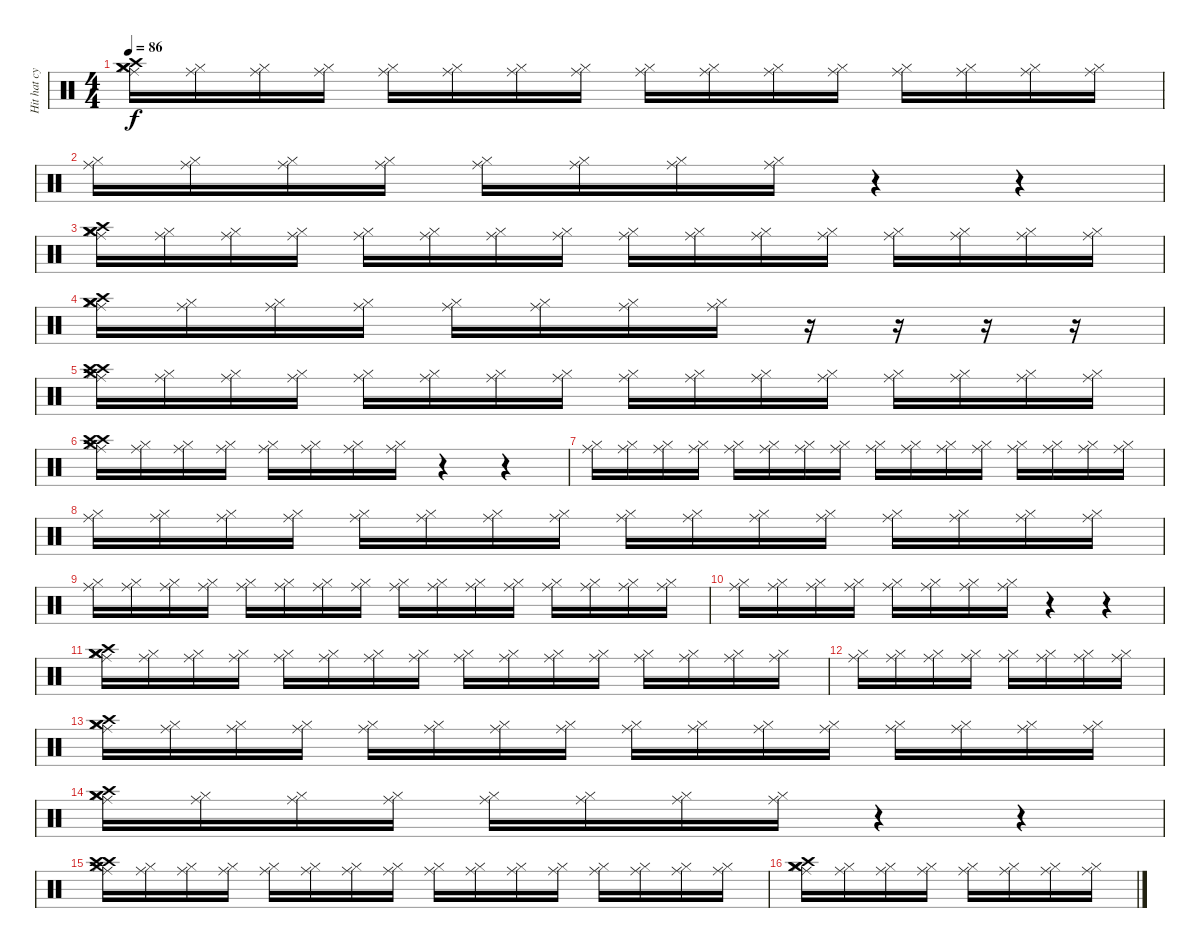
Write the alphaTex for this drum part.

\track ("Hit hat cymbal" "Hit hat cy") {instrument percussion}
\staff {score}
\articulation defaults
\ts (4 4)
\tempo 86
\clef neutral
\ks c
("Ride (middle)" "Hi-Hat (closed)" "Crash medium (hit)" "Crash medium (hit)" "Crash high (hit)").16{dy f} ("Ride (middle)" "Hi-Hat (closed)").16 ("Ride (middle)" "Hi-Hat (closed)").16 ("Ride (middle)" "Hi-Hat (closed)").16 ("Ride (middle)" "Hi-Hat (closed)").16 ("Ride (middle)" "Hi-Hat (closed)").16 ("Ride (middle)" "Hi-Hat (closed)").16 ("Ride (middle)" "Hi-Hat (closed)").16 ("Ride (middle)" "Hi-Hat (closed)").16 ("Ride (middle)" "Hi-Hat (closed)").16 ("Ride (middle)" "Hi-Hat (closed)").16 ("Ride (middle)" "Hi-Hat (closed)").16 ("Ride (middle)" "Hi-Hat (closed)").16 ("Ride (middle)" "Hi-Hat (closed)").16 ("Ride (middle)" "Hi-Hat (closed)").16 ("Ride (middle)" "Hi-Hat (closed)").16 |
("Ride (middle)" "Hi-Hat (closed)").16 ("Ride (middle)" "Hi-Hat (closed)").16 ("Ride (middle)" "Hi-Hat (closed)").16 ("Ride (middle)" "Hi-Hat (closed)").16 ("Ride (middle)" "Hi-Hat (closed)").16 ("Ride (middle)" "Hi-Hat (closed)").16 ("Ride (middle)" "Hi-Hat (closed)").16 ("Ride (middle)" "Hi-Hat (closed)").16 r.4 r.4 |
("Ride (middle)" "Hi-Hat (closed)" "Crash medium (hit)" "Crash medium (hit)" "Crash high (hit)").16 ("Ride (middle)" "Hi-Hat (closed)").16 ("Ride (middle)" "Hi-Hat (closed)").16 ("Ride (middle)" "Hi-Hat (closed)").16 ("Ride (middle)" "Hi-Hat (closed)").16 ("Ride (middle)" "Hi-Hat (closed)").16 ("Ride (middle)" "Hi-Hat (closed)").16 ("Ride (middle)" "Hi-Hat (closed)").16 ("Ride (middle)" "Hi-Hat (closed)").16 ("Ride (middle)" "Hi-Hat (closed)").16 ("Ride (middle)" "Hi-Hat (closed)").16 ("Ride (middle)" "Hi-Hat (closed)").16 ("Ride (middle)" "Hi-Hat (closed)").16 ("Ride (middle)" "Hi-Hat (closed)").16 ("Ride (middle)" "Hi-Hat (closed)").16 ("Ride (middle)" "Hi-Hat (closed)").16 |
("Ride (middle)" "Hi-Hat (closed)" "Crash medium (hit)" "Crash medium (hit)" "Crash high (hit)").16 ("Ride (middle)" "Hi-Hat (closed)").16 ("Ride (middle)" "Hi-Hat (closed)").16 ("Ride (middle)" "Hi-Hat (closed)").16 ("Ride (middle)" "Hi-Hat (closed)").16 ("Ride (middle)" "Hi-Hat (closed)").16 ("Ride (middle)" "Hi-Hat (closed)").16 ("Ride (middle)" "Hi-Hat (closed)").16 r.16 r.16 r.16 r.16 |
("Ride (middle)" "Hi-Hat (closed)" "Crash medium (hit)" "Crash high (hit)" "Crash high (hit)").16 ("Ride (middle)" "Hi-Hat (closed)").16 ("Ride (middle)" "Hi-Hat (closed)").16 ("Ride (middle)" "Hi-Hat (closed)").16 ("Ride (middle)" "Hi-Hat (closed)").16 ("Ride (middle)" "Hi-Hat (closed)").16 ("Ride (middle)" "Hi-Hat (closed)").16 ("Ride (middle)" "Hi-Hat (closed)").16 ("Ride (middle)" "Hi-Hat (closed)").16 ("Ride (middle)" "Hi-Hat (closed)").16 ("Ride (middle)" "Hi-Hat (closed)").16 ("Ride (middle)" "Hi-Hat (closed)").16 ("Ride (middle)" "Hi-Hat (closed)").16 ("Ride (middle)" "Hi-Hat (closed)").16 ("Ride (middle)" "Hi-Hat (closed)").16 ("Ride (middle)" "Hi-Hat (closed)").16 |
("Ride (middle)" "Hi-Hat (closed)" "Crash medium (hit)" "Crash high (hit)" "Crash high (hit)").16 ("Ride (middle)" "Hi-Hat (closed)").16 ("Ride (middle)" "Hi-Hat (closed)").16 ("Ride (middle)" "Hi-Hat (closed)").16 ("Ride (middle)" "Hi-Hat (closed)").16 ("Ride (middle)" "Hi-Hat (closed)").16 ("Ride (middle)" "Hi-Hat (closed)").16 ("Ride (middle)" "Hi-Hat (closed)").16 r.4 r.4 |
("Ride (middle)" "Hi-Hat (closed)").16 ("Ride (middle)" "Hi-Hat (closed)").16 ("Ride (middle)" "Hi-Hat (closed)").16 ("Ride (middle)" "Hi-Hat (closed)").16 ("Ride (middle)" "Hi-Hat (closed)").16 ("Ride (middle)" "Hi-Hat (closed)").16 ("Ride (middle)" "Hi-Hat (closed)").16 ("Ride (middle)" "Hi-Hat (closed)").16 ("Ride (middle)" "Hi-Hat (closed)").16 ("Ride (middle)" "Hi-Hat (closed)").16 ("Ride (middle)" "Hi-Hat (closed)").16 ("Ride (middle)" "Hi-Hat (closed)").16 ("Ride (middle)" "Hi-Hat (closed)").16 ("Ride (middle)" "Hi-Hat (closed)").16 ("Ride (middle)" "Hi-Hat (closed)").16 ("Ride (middle)" "Hi-Hat (closed)").16 |
("Ride (middle)" "Hi-Hat (closed)").16 ("Ride (middle)" "Hi-Hat (closed)").16 ("Ride (middle)" "Hi-Hat (closed)").16 ("Ride (middle)" "Hi-Hat (closed)").16 ("Ride (middle)" "Hi-Hat (closed)").16 ("Ride (middle)" "Hi-Hat (closed)").16 ("Ride (middle)" "Hi-Hat (closed)").16 ("Ride (middle)" "Hi-Hat (closed)").16 ("Ride (middle)" "Hi-Hat (closed)").16 ("Ride (middle)" "Hi-Hat (closed)").16 ("Ride (middle)" "Hi-Hat (closed)").16 ("Ride (middle)" "Hi-Hat (closed)").16 ("Ride (middle)" "Hi-Hat (closed)").16 ("Ride (middle)" "Hi-Hat (closed)").16 ("Ride (middle)" "Hi-Hat (closed)").16 ("Ride (middle)" "Hi-Hat (closed)").16 |
("Ride (middle)" "Hi-Hat (closed)").16 ("Ride (middle)" "Hi-Hat (closed)").16 ("Ride (middle)" "Hi-Hat (closed)").16 ("Ride (middle)" "Hi-Hat (closed)").16 ("Ride (middle)" "Hi-Hat (closed)").16 ("Ride (middle)" "Hi-Hat (closed)").16 ("Ride (middle)" "Hi-Hat (closed)").16 ("Ride (middle)" "Hi-Hat (closed)").16 ("Ride (middle)" "Hi-Hat (closed)").16 ("Ride (middle)" "Hi-Hat (closed)").16 ("Ride (middle)" "Hi-Hat (closed)").16 ("Ride (middle)" "Hi-Hat (closed)").16 ("Ride (middle)" "Hi-Hat (closed)").16 ("Ride (middle)" "Hi-Hat (closed)").16 ("Ride (middle)" "Hi-Hat (closed)").16 ("Ride (middle)" "Hi-Hat (closed)").16 |
("Ride (middle)" "Hi-Hat (closed)").16 ("Ride (middle)" "Hi-Hat (closed)").16 ("Ride (middle)" "Hi-Hat (closed)").16 ("Ride (middle)" "Hi-Hat (closed)").16 ("Ride (middle)" "Hi-Hat (closed)").16 ("Ride (middle)" "Hi-Hat (closed)").16 ("Ride (middle)" "Hi-Hat (closed)").16 ("Ride (middle)" "Hi-Hat (closed)").16 r.4 r.4 |
("Ride (middle)" "Hi-Hat (closed)" "Crash medium (hit)" "Crash medium (hit)" "Crash high (hit)").16 ("Ride (middle)" "Hi-Hat (closed)").16 ("Ride (middle)" "Hi-Hat (closed)").16 ("Ride (middle)" "Hi-Hat (closed)").16 ("Ride (middle)" "Hi-Hat (closed)").16 ("Ride (middle)" "Hi-Hat (closed)").16 ("Ride (middle)" "Hi-Hat (closed)").16 ("Ride (middle)" "Hi-Hat (closed)").16 ("Ride (middle)" "Hi-Hat (closed)").16 ("Ride (middle)" "Hi-Hat (closed)").16 ("Ride (middle)" "Hi-Hat (closed)").16 ("Ride (middle)" "Hi-Hat (closed)").16 ("Ride (middle)" "Hi-Hat (closed)").16 ("Ride (middle)" "Hi-Hat (closed)").16 ("Ride (middle)" "Hi-Hat (closed)").16 ("Ride (middle)" "Hi-Hat (closed)").16 |
("Ride (middle)" "Hi-Hat (closed)").16 ("Ride (middle)" "Hi-Hat (closed)").16 ("Ride (middle)" "Hi-Hat (closed)").16 ("Ride (middle)" "Hi-Hat (closed)").16 ("Ride (middle)" "Hi-Hat (closed)").16 ("Ride (middle)" "Hi-Hat (closed)").16 ("Ride (middle)" "Hi-Hat (closed)").16 ("Ride (middle)" "Hi-Hat (closed)").16 |
("Ride (middle)" "Hi-Hat (closed)" "Crash medium (hit)" "Crash medium (hit)" "Crash high (hit)").16 ("Ride (middle)" "Hi-Hat (closed)").16 ("Ride (middle)" "Hi-Hat (closed)").16 ("Ride (middle)" "Hi-Hat (closed)").16 ("Ride (middle)" "Hi-Hat (closed)").16 ("Ride (middle)" "Hi-Hat (closed)").16 ("Ride (middle)" "Hi-Hat (closed)").16 ("Ride (middle)" "Hi-Hat (closed)").16 ("Ride (middle)" "Hi-Hat (closed)").16 ("Ride (middle)" "Hi-Hat (closed)").16 ("Ride (middle)" "Hi-Hat (closed)").16 ("Ride (middle)" "Hi-Hat (closed)").16 ("Ride (middle)" "Hi-Hat (closed)").16 ("Ride (middle)" "Hi-Hat (closed)").16 ("Ride (middle)" "Hi-Hat (closed)").16 ("Ride (middle)" "Hi-Hat (closed)").16 |
("Ride (middle)" "Hi-Hat (closed)" "Crash medium (hit)" "Crash medium (hit)" "Crash high (hit)").16 ("Ride (middle)" "Hi-Hat (closed)").16 ("Ride (middle)" "Hi-Hat (closed)").16 ("Ride (middle)" "Hi-Hat (closed)").16 ("Ride (middle)" "Hi-Hat (closed)").16 ("Ride (middle)" "Hi-Hat (closed)").16 ("Ride (middle)" "Hi-Hat (closed)").16 ("Ride (middle)" "Hi-Hat (closed)").16 r.4 r.4 |
("Ride (middle)" "Hi-Hat (closed)" "Crash medium (hit)" "Crash high (hit)" "Crash high (hit)").16 ("Ride (middle)" "Hi-Hat (closed)").16 ("Ride (middle)" "Hi-Hat (closed)").16 ("Ride (middle)" "Hi-Hat (closed)").16 ("Ride (middle)" "Hi-Hat (closed)").16 ("Ride (middle)" "Hi-Hat (closed)").16 ("Ride (middle)" "Hi-Hat (closed)").16 ("Ride (middle)" "Hi-Hat (closed)").16 ("Ride (middle)" "Hi-Hat (closed)").16 ("Ride (middle)" "Hi-Hat (closed)").16 ("Ride (middle)" "Hi-Hat (closed)").16 ("Ride (middle)" "Hi-Hat (closed)").16 ("Ride (middle)" "Hi-Hat (closed)").16 ("Ride (middle)" "Hi-Hat (closed)").16 ("Ride (middle)" "Hi-Hat (closed)").16 ("Ride (middle)" "Hi-Hat (closed)").16 |
("Ride (middle)" "Hi-Hat (closed)" "Crash medium (hit)" "Crash medium (hit)" "Crash high (hit)").16 ("Ride (middle)" "Hi-Hat (closed)").16 ("Ride (middle)" "Hi-Hat (closed)").16 ("Ride (middle)" "Hi-Hat (closed)").16 ("Ride (middle)" "Hi-Hat (closed)").16 ("Ride (middle)" "Hi-Hat (closed)").16 ("Ride (middle)" "Hi-Hat (closed)").16 ("Ride (middle)" "Hi-Hat (closed)").16
